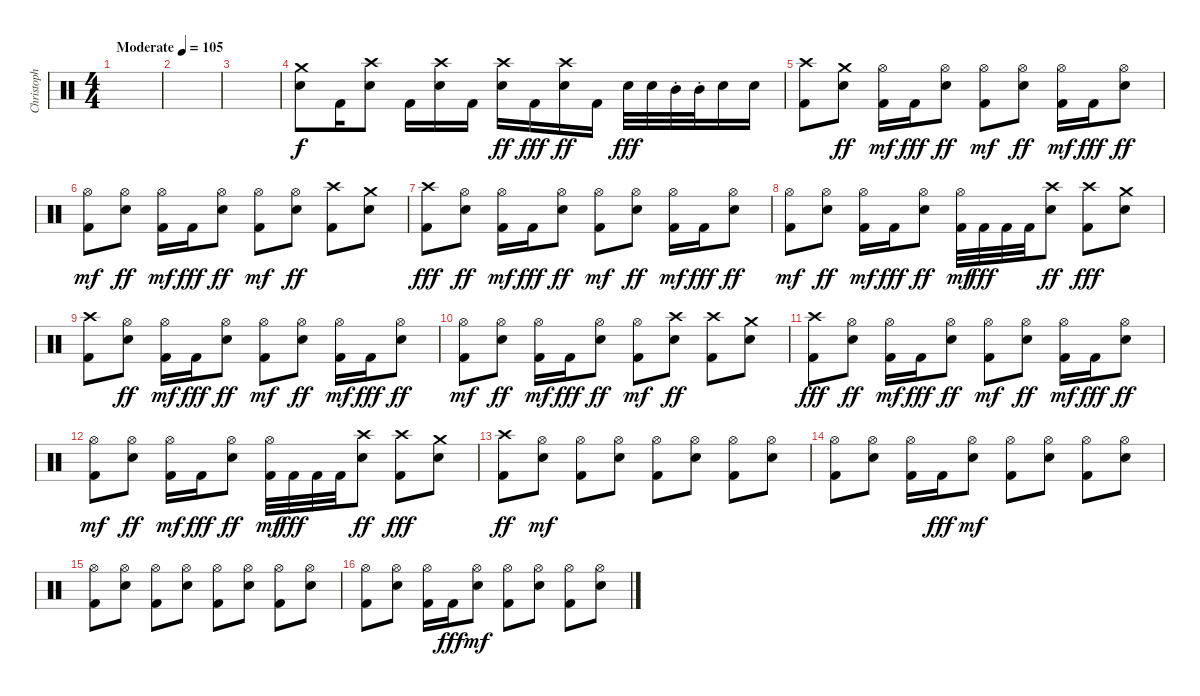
\track ("Christoph \"Doom\" Schneider" "Christoph ") {instrument percussion}
\staff {score}
\articulation defaults
\ts (4 4)
\tempo (105 "Moderate")
\clef neutral
\ks c
|
|
|
("Electric Snare (hit)" "Crash medium (hit)").8 "Kick (hit) 2".16 ("Electric Snare (hit)" "Crash high (hit)").8 "Kick (hit) 2".16 ("Electric Snare (hit)" "Crash high (hit)").16 "Kick (hit) 2".16 ("Electric Snare (hit)" "Crash high (hit)").16{dy ff} "Kick (hit) 2".16{dy fff} ("Electric Snare (hit)" "Crash high (hit)").16{dy ff} "Kick (hit) 2".16 "Electric Snare (hit)".32{dy fff} "Electric Snare (hit)".32 "Mid Tom (hit)"{st}.32 "Mid Tom (hit)"{st}.32 "Electric Snare (hit)".16 "Electric Snare (hit)".16 |
("Kick (hit) 2" "Crash high (hit)").8 ("Electric Snare (hit)" "Crash medium (hit)").8{dy ff} ("Kick (hit) 2" "Hi-Hat (open)").16{dy mf} "Kick (hit) 2".16{dy fff} ("Hi-Hat (open)" "Electric Snare (hit)").8{dy ff} ("Kick (hit) 2" "Hi-Hat (open)").8{dy mf} ("Hi-Hat (open)" "Electric Snare (hit)").8{dy ff} ("Kick (hit) 2" "Hi-Hat (open)").16{dy mf} "Kick (hit) 2".16{dy fff} ("Hi-Hat (open)" "Electric Snare (hit)").8{dy ff} |
("Kick (hit) 2" "Hi-Hat (open)").8{dy mf} ("Hi-Hat (open)" "Electric Snare (hit)").8{dy ff} ("Kick (hit) 2" "Hi-Hat (open)").16{dy mf} "Kick (hit) 2".16{dy fff} ("Hi-Hat (open)" "Electric Snare (hit)").8{dy ff} ("Kick (hit) 2" "Hi-Hat (open)").8{dy mf} ("Hi-Hat (open)" "Electric Snare (hit)").8{dy ff} ("Kick (hit) 2" "Crash high (hit)").8 ("Electric Snare (hit)" "Crash medium (hit)").8 |
("Kick (hit) 2" "Crash high (hit)").8{dy fff} ("Hi-Hat (open)" "Electric Snare (hit)").8{dy ff} ("Kick (hit) 2" "Hi-Hat (open)").16{dy mf} "Kick (hit) 2".16{dy fff} ("Hi-Hat (open)" "Electric Snare (hit)").8{dy ff} ("Kick (hit) 2" "Hi-Hat (open)").8{dy mf} ("Hi-Hat (open)" "Electric Snare (hit)").8{dy ff} ("Kick (hit) 2" "Hi-Hat (open)").16{dy mf} "Kick (hit) 2".16{dy fff} ("Hi-Hat (open)" "Electric Snare (hit)").8{dy ff} |
("Kick (hit) 2" "Hi-Hat (open)").8{dy mf} ("Hi-Hat (open)" "Electric Snare (hit)").8{dy ff} ("Kick (hit) 2" "Hi-Hat (open)").16{dy mf} "Kick (hit) 2".16{dy fff} ("Hi-Hat (open)" "Electric Snare (hit)").8{dy ff} ("Kick (hit) 2" "Hi-Hat (open)").32{dy mf} "Kick (hit) 2".32{dy fff} "Kick (hit) 2".32 "Kick (hit) 2".32 ("Crash high (hit)" "Electric Snare (hit)").8{dy ff} ("Kick (hit) 2" "Crash high (hit)").8{dy fff} ("Electric Snare (hit)" "Crash medium (hit)").8 |
("Kick (hit) 2" "Crash high (hit)").8 ("Hi-Hat (open)" "Electric Snare (hit)").8{dy ff} ("Kick (hit) 2" "Hi-Hat (open)").16{dy mf} "Kick (hit) 2".16{dy fff} ("Hi-Hat (open)" "Electric Snare (hit)").8{dy ff} ("Kick (hit) 2" "Hi-Hat (open)").8{dy mf} ("Hi-Hat (open)" "Electric Snare (hit)").8{dy ff} ("Kick (hit) 2" "Hi-Hat (open)").16{dy mf} "Kick (hit) 2".16{dy fff} ("Hi-Hat (open)" "Electric Snare (hit)").8{dy ff} |
("Kick (hit) 2" "Hi-Hat (open)").8{dy mf} ("Hi-Hat (open)" "Electric Snare (hit)").8{dy ff} ("Kick (hit) 2" "Hi-Hat (open)").16{dy mf} "Kick (hit) 2".16{dy fff} ("Hi-Hat (open)" "Electric Snare (hit)").8{dy ff} ("Kick (hit) 2" "Hi-Hat (open)").8{dy mf} ("Crash high (hit)" "Electric Snare (hit)").8{dy ff} ("Kick (hit) 2" "Crash high (hit)").8 ("Electric Snare (hit)" "Crash medium (hit)").8 |
("Kick (hit) 2" "Crash high (hit)").8{dy fff} ("Hi-Hat (open)" "Electric Snare (hit)").8{dy ff} ("Kick (hit) 2" "Hi-Hat (open)").16{dy mf} "Kick (hit) 2".16{dy fff} ("Hi-Hat (open)" "Electric Snare (hit)").8{dy ff} ("Kick (hit) 2" "Hi-Hat (open)").8{dy mf} ("Hi-Hat (open)" "Electric Snare (hit)").8{dy ff} ("Kick (hit) 2" "Hi-Hat (open)").16{dy mf} "Kick (hit) 2".16{dy fff} ("Hi-Hat (open)" "Electric Snare (hit)").8{dy ff} |
("Kick (hit) 2" "Hi-Hat (open)").8{dy mf} ("Hi-Hat (open)" "Electric Snare (hit)").8{dy ff} ("Kick (hit) 2" "Hi-Hat (open)").16{dy mf} "Kick (hit) 2".16{dy fff} ("Hi-Hat (open)" "Electric Snare (hit)").8{dy ff} ("Kick (hit) 2" "Hi-Hat (open)").32{dy mf} "Kick (hit) 2".32{dy fff} "Kick (hit) 2".32 "Kick (hit) 2".32 ("Crash high (hit)" "Electric Snare (hit)").8{dy ff} ("Kick (hit) 2" "Crash high (hit)").8{dy fff} ("Electric Snare (hit)" "Crash medium (hit)").8 |
("Kick (hit) 2" "Crash high (hit)").8{dy ff} ("Hi-Hat (open)" "Electric Snare (hit)").8{dy mf} ("Kick (hit) 2" "Hi-Hat (open)").8 ("Hi-Hat (open)" "Electric Snare (hit)").8 ("Kick (hit) 2" "Hi-Hat (open)").8 ("Hi-Hat (open)" "Electric Snare (hit)").8 ("Kick (hit) 2" "Hi-Hat (open)").8 ("Hi-Hat (open)" "Electric Snare (hit)").8 |
("Kick (hit) 2" "Hi-Hat (open)").8 ("Hi-Hat (open)" "Electric Snare (hit)").8 ("Kick (hit) 2" "Hi-Hat (open)").16 "Kick (hit) 2".16{dy fff} ("Hi-Hat (open)" "Electric Snare (hit)").8{dy mf} ("Kick (hit) 2" "Hi-Hat (open)").8 ("Hi-Hat (open)" "Electric Snare (hit)").8 ("Kick (hit) 2" "Hi-Hat (open)").8 ("Hi-Hat (open)" "Electric Snare (hit)").8 |
("Kick (hit) 2" "Hi-Hat (open)").8 ("Hi-Hat (open)" "Electric Snare (hit)").8 ("Kick (hit) 2" "Hi-Hat (open)").8 ("Hi-Hat (open)" "Electric Snare (hit)").8 ("Kick (hit) 2" "Hi-Hat (open)").8 ("Hi-Hat (open)" "Electric Snare (hit)").8 ("Kick (hit) 2" "Hi-Hat (open)").8 ("Hi-Hat (open)" "Electric Snare (hit)").8 |
("Kick (hit) 2" "Hi-Hat (open)").8 ("Hi-Hat (open)" "Electric Snare (hit)").8 ("Kick (hit) 2" "Hi-Hat (open)").16 "Kick (hit) 2".16{dy fff} ("Hi-Hat (open)" "Electric Snare (hit)").8{dy mf} ("Kick (hit) 2" "Hi-Hat (open)").8 ("Hi-Hat (open)" "Electric Snare (hit)").8 ("Kick (hit) 2" "Hi-Hat (open)").8 ("Hi-Hat (open)" "Electric Snare (hit)").8
